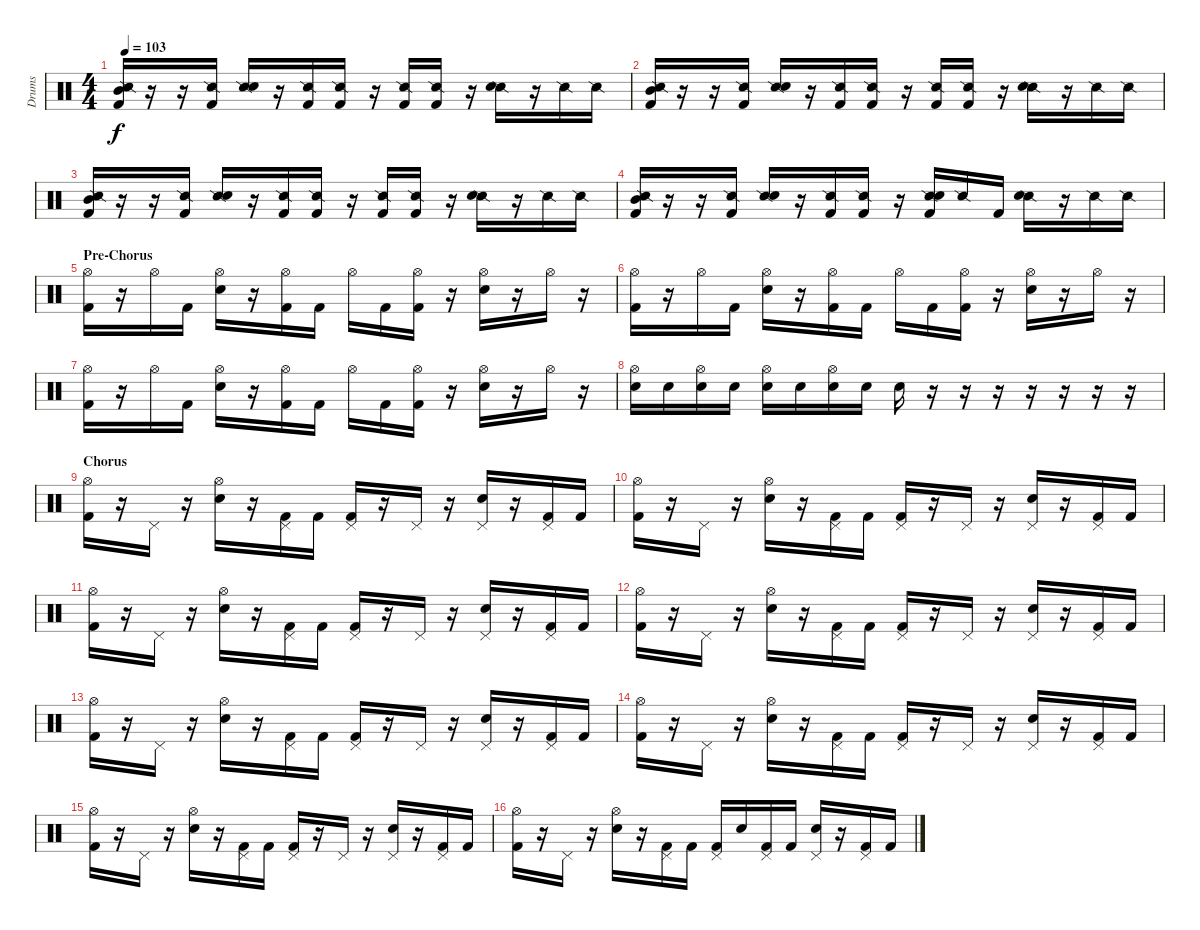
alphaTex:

\track ("Drums" "Drums") {instrument percussion}
\staff {score}
\articulation defaults
\ts (4 4)
\tempo 103
\clef neutral
\ks c
("Snare (side stick) 2" "Mid Tom (hit)" "Kick (hit) 2").16{dy f volume 11} r.16 r.16 ("Snare (side stick) 2" "Kick (hit) 2").16 ("Snare (side stick) 2" "Electric Snare (hit)").16 r.16 ("Snare (side stick) 2" "Kick (hit) 2").16 ("Snare (side stick) 2" "Kick (hit) 2").16 r.16 ("Snare (side stick) 2" "Kick (hit) 2").16 ("Snare (side stick) 2" "Kick (hit) 2").16 r.16 ("Snare (side stick) 2" "Electric Snare (hit)").16 r.16 "Snare (side stick) 2".16 "Snare (side stick) 2".16 |
("Snare (side stick) 2" "Mid Tom (hit)" "Kick (hit) 2").16{volume 11} r.16 r.16 ("Snare (side stick) 2" "Kick (hit) 2").16 ("Snare (side stick) 2" "Electric Snare (hit)").16 r.16 ("Snare (side stick) 2" "Kick (hit) 2").16 ("Snare (side stick) 2" "Kick (hit) 2").16 r.16 ("Snare (side stick) 2" "Kick (hit) 2").16 ("Snare (side stick) 2" "Kick (hit) 2").16 r.16 ("Snare (side stick) 2" "Electric Snare (hit)").16 r.16 "Snare (side stick) 2".16 "Snare (side stick) 2".16 |
("Snare (side stick) 2" "Mid Tom (hit)" "Kick (hit) 2").16{volume 11} r.16 r.16 ("Snare (side stick) 2" "Kick (hit) 2").16 ("Snare (side stick) 2" "Electric Snare (hit)").16 r.16 ("Snare (side stick) 2" "Kick (hit) 2").16 ("Snare (side stick) 2" "Kick (hit) 2").16 r.16 ("Snare (side stick) 2" "Kick (hit) 2").16 ("Snare (side stick) 2" "Kick (hit) 2").16 r.16 ("Snare (side stick) 2" "Electric Snare (hit)").16 r.16 "Snare (side stick) 2".16 "Snare (side stick) 2".16 |
("Snare (side stick) 2" "Mid Tom (hit)" "Kick (hit) 2").16{volume 11} r.16 r.16 ("Snare (side stick) 2" "Kick (hit) 2").16 ("Snare (side stick) 2" "Electric Snare (hit)").16 r.16 ("Snare (side stick) 2" "Kick (hit) 2").16 ("Snare (side stick) 2" "Kick (hit) 2").16 r.16 ("Snare (side stick) 2" "Electric Snare (hit)" "Kick (hit) 2").16 "Snare (side stick) 2".16 "Kick (hit) 2".16 ("Snare (side stick) 2" "Electric Snare (hit)").16 r.16 "Snare (side stick) 2".16 "Snare (side stick) 2".16 |
\section ("" "Pre-Chorus")
("Hi-Hat (open)" "Kick (hit) 2").16{volume 11} r.16 "Hi-Hat (open)".16 "Kick (hit) 2".16 ("Hi-Hat (open)" "Electric Snare (hit)").16 r.16 ("Hi-Hat (open)" "Kick (hit) 2").16 "Kick (hit) 2".16 "Hi-Hat (open)".16 "Kick (hit) 2".16 ("Hi-Hat (open)" "Kick (hit) 2").16 r.16 ("Hi-Hat (open)" "Electric Snare (hit)").16 r.16 "Hi-Hat (open)".16 r.16 |
("Hi-Hat (open)" "Kick (hit) 2").16{volume 11} r.16 "Hi-Hat (open)".16 "Kick (hit) 2".16 ("Hi-Hat (open)" "Electric Snare (hit)").16 r.16 ("Hi-Hat (open)" "Kick (hit) 2").16 "Kick (hit) 2".16 "Hi-Hat (open)".16 "Kick (hit) 2".16 ("Hi-Hat (open)" "Kick (hit) 2").16 r.16 ("Hi-Hat (open)" "Electric Snare (hit)").16 r.16 "Hi-Hat (open)".16 r.16 |
("Hi-Hat (open)" "Kick (hit) 2").16{volume 11} r.16 "Hi-Hat (open)".16 "Kick (hit) 2".16 ("Hi-Hat (open)" "Electric Snare (hit)").16 r.16 ("Hi-Hat (open)" "Kick (hit) 2").16 "Kick (hit) 2".16 "Hi-Hat (open)".16 "Kick (hit) 2".16 ("Hi-Hat (open)" "Kick (hit) 2").16 r.16 ("Hi-Hat (open)" "Electric Snare (hit)").16 r.16 "Hi-Hat (open)".16 r.16 |
("Hi-Hat (open)" "Electric Snare (hit)").16{volume 11} "Electric Snare (hit)".16 ("Hi-Hat (open)" "Snare (hit) 2").16 "Snare (hit) 2".16 ("Hi-Hat (open)" "Snare (hit) 2").16 "Snare (hit) 2".16 ("Hi-Hat (open)" "Snare (hit) 2").16 "Snare (hit) 2".16 "Electric Snare (hit)".16 r.16 r.16 r.16 r.16 r.16 r.16 r.16 |
\section ("" "Chorus")
("Hi-Hat (open)" "Kick (hit) 2").16 r.16 "Pedal Hi-Hat (hit)".16 r.16 ("Hi-Hat (open)" "Electric Snare (hit)").16 r.16 ("Pedal Hi-Hat (hit)" "Kick (hit) 2").16 "Kick (hit) 2".16 ("Pedal Hi-Hat (hit)" "Kick (hit) 2").16 r.16 "Pedal Hi-Hat (hit)".16 r.16 ("Pedal Hi-Hat (hit)" "Electric Snare (hit)").16 r.16 ("Pedal Hi-Hat (hit)" "Kick (hit) 2").16 "Kick (hit) 2".16 |
("Hi-Hat (open)" "Kick (hit) 2").16 r.16 "Pedal Hi-Hat (hit)".16 r.16 ("Hi-Hat (open)" "Electric Snare (hit)").16 r.16 ("Pedal Hi-Hat (hit)" "Kick (hit) 2").16 "Kick (hit) 2".16 ("Pedal Hi-Hat (hit)" "Kick (hit) 2").16 r.16 "Pedal Hi-Hat (hit)".16 r.16 ("Pedal Hi-Hat (hit)" "Electric Snare (hit)").16 r.16 ("Pedal Hi-Hat (hit)" "Kick (hit) 2").16 "Kick (hit) 2".16 |
("Hi-Hat (open)" "Kick (hit) 2").16 r.16 "Pedal Hi-Hat (hit)".16 r.16 ("Hi-Hat (open)" "Electric Snare (hit)").16 r.16 ("Pedal Hi-Hat (hit)" "Kick (hit) 2").16 "Kick (hit) 2".16 ("Pedal Hi-Hat (hit)" "Kick (hit) 2").16 r.16 "Pedal Hi-Hat (hit)".16 r.16 ("Pedal Hi-Hat (hit)" "Electric Snare (hit)").16 r.16 ("Pedal Hi-Hat (hit)" "Kick (hit) 2").16 "Kick (hit) 2".16 |
("Hi-Hat (open)" "Kick (hit) 2").16 r.16 "Pedal Hi-Hat (hit)".16 r.16 ("Hi-Hat (open)" "Electric Snare (hit)").16 r.16 ("Pedal Hi-Hat (hit)" "Kick (hit) 2").16 "Kick (hit) 2".16 ("Pedal Hi-Hat (hit)" "Kick (hit) 2").16 r.16 "Pedal Hi-Hat (hit)".16 r.16 ("Pedal Hi-Hat (hit)" "Electric Snare (hit)").16 r.16 ("Pedal Hi-Hat (hit)" "Kick (hit) 2").16 "Kick (hit) 2".16 |
("Hi-Hat (open)" "Kick (hit) 2").16 r.16 "Pedal Hi-Hat (hit)".16 r.16 ("Hi-Hat (open)" "Electric Snare (hit)").16 r.16 ("Pedal Hi-Hat (hit)" "Kick (hit) 2").16 "Kick (hit) 2".16 ("Pedal Hi-Hat (hit)" "Kick (hit) 2").16 r.16 "Pedal Hi-Hat (hit)".16 r.16 ("Pedal Hi-Hat (hit)" "Electric Snare (hit)").16 r.16 ("Pedal Hi-Hat (hit)" "Kick (hit) 2").16 "Kick (hit) 2".16 |
("Hi-Hat (open)" "Kick (hit) 2").16 r.16 "Pedal Hi-Hat (hit)".16 r.16 ("Hi-Hat (open)" "Electric Snare (hit)").16 r.16 ("Pedal Hi-Hat (hit)" "Kick (hit) 2").16 "Kick (hit) 2".16 ("Pedal Hi-Hat (hit)" "Kick (hit) 2").16 r.16 "Pedal Hi-Hat (hit)".16 r.16 ("Pedal Hi-Hat (hit)" "Electric Snare (hit)").16 r.16 ("Pedal Hi-Hat (hit)" "Kick (hit) 2").16 "Kick (hit) 2".16 |
("Hi-Hat (open)" "Kick (hit) 2").16 r.16 "Pedal Hi-Hat (hit)".16 r.16 ("Hi-Hat (open)" "Electric Snare (hit)").16 r.16 ("Pedal Hi-Hat (hit)" "Kick (hit) 2").16 "Kick (hit) 2".16 ("Pedal Hi-Hat (hit)" "Kick (hit) 2").16 r.16 "Pedal Hi-Hat (hit)".16 r.16 ("Pedal Hi-Hat (hit)" "Electric Snare (hit)").16 r.16 ("Pedal Hi-Hat (hit)" "Kick (hit) 2").16 "Kick (hit) 2".16 |
("Hi-Hat (open)" "Kick (hit) 2").16 r.16 "Pedal Hi-Hat (hit)".16 r.16 ("Hi-Hat (open)" "Electric Snare (hit)").16 r.16 ("Pedal Hi-Hat (hit)" "Kick (hit) 2").16 "Kick (hit) 2".16 ("Pedal Hi-Hat (hit)" "Kick (hit) 2").16 "Electric Snare (hit)".16 ("Pedal Hi-Hat (hit)" "Kick (hit) 2").16 "Kick (hit) 2".16 ("Pedal Hi-Hat (hit)" "Electric Snare (hit)").16 r.16 ("Pedal Hi-Hat (hit)" "Kick (hit) 2").16 "Kick (hit) 2".16
